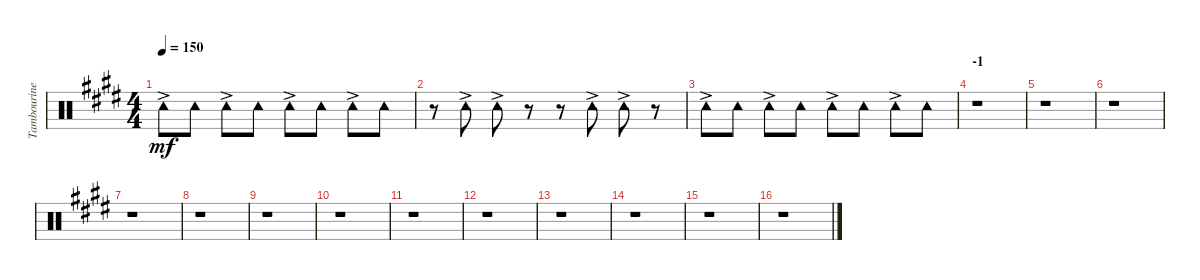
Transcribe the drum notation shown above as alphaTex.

\track ("Tambourine" "Tambourine") {instrument percussion}
\staff {score}
\articulation defaults
\ts (4 4)
\tempo 150
\clef neutral
\ks e "Tambourine (hit)"{ac}.8{dy mf} "Tambourine (hit)".8 "Tambourine (hit)"{ac}.8 "Tambourine (hit)".8 "Tambourine (hit)"{ac}.8 "Tambourine (hit)".8 "Tambourine (hit)"{ac}.8 "Tambourine (hit)".8
|
r.8 "Tambourine (hit)"{ac}.8 "Tambourine (hit)"{ac}.8 r.8 r.8 "Tambourine (hit)"{ac}.8 "Tambourine (hit)"{ac}.8 r.8 |
"Tambourine (hit)"{ac}.8 "Tambourine (hit)".8 "Tambourine (hit)"{ac}.8 "Tambourine (hit)".8 "Tambourine (hit)"{ac}.8 "Tambourine (hit)".8 "Tambourine (hit)"{ac}.8 "Tambourine (hit)".8 |
\section ("" "-1")
r.1 |
r.1 |
r.1 |
r.1 |
r.1 |
r.1 |
r.1 |
r.1 |
r.1 |
r.1 |
r.1 |
r.1 |
r.1
